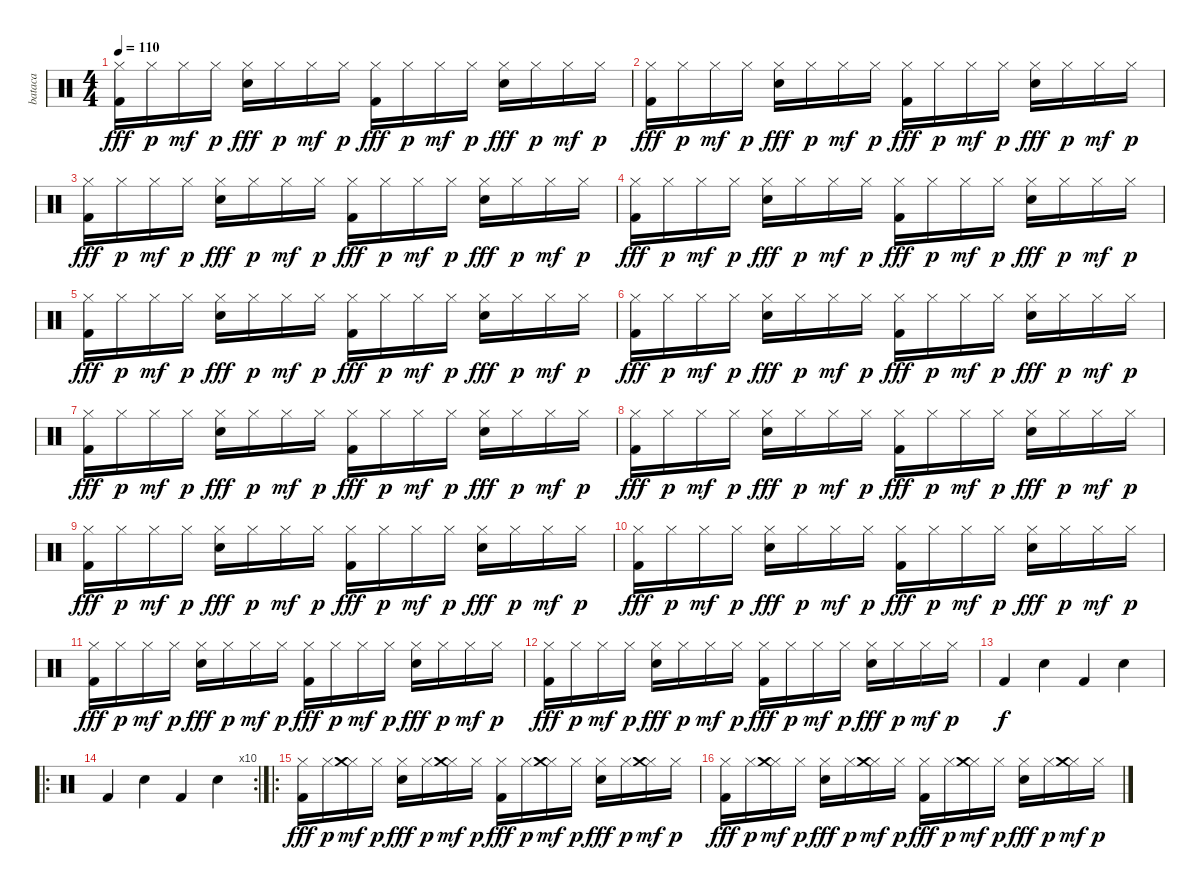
\track ("bataca" "bataca") {instrument percussion}
\staff {score}
\articulation defaults
\ts (4 4)
\tempo 110
\clef neutral
\ks c
("Hi-Hat (closed)" "Kick (hit) 2").16{dy fff} "Hi-Hat (closed)".16{dy p} "Hi-Hat (closed)".16{dy mf} "Hi-Hat (closed)".16{dy p} ("Hi-Hat (closed)" "Electric Snare (hit)").16{dy fff} "Hi-Hat (closed)".16{dy p} "Hi-Hat (closed)".16{dy mf} "Hi-Hat (closed)".16{dy p} ("Hi-Hat (closed)" "Kick (hit) 2").16{dy fff} "Hi-Hat (closed)".16{dy p} "Hi-Hat (closed)".16{dy mf} "Hi-Hat (closed)".16{dy p} ("Hi-Hat (closed)" "Electric Snare (hit)").16{dy fff} "Hi-Hat (closed)".16{dy p} "Hi-Hat (closed)".16{dy mf} "Hi-Hat (closed)".16{dy p} |
("Hi-Hat (closed)" "Kick (hit) 2").16{dy fff} "Hi-Hat (closed)".16{dy p} "Hi-Hat (closed)".16{dy mf} "Hi-Hat (closed)".16{dy p} ("Hi-Hat (closed)" "Electric Snare (hit)").16{dy fff} "Hi-Hat (closed)".16{dy p} "Hi-Hat (closed)".16{dy mf} "Hi-Hat (closed)".16{dy p} ("Hi-Hat (closed)" "Kick (hit) 2").16{dy fff} "Hi-Hat (closed)".16{dy p} "Hi-Hat (closed)".16{dy mf} "Hi-Hat (closed)".16{dy p} ("Hi-Hat (closed)" "Electric Snare (hit)").16{dy fff} "Hi-Hat (closed)".16{dy p} "Hi-Hat (closed)".16{dy mf} "Hi-Hat (closed)".16{dy p} |
("Hi-Hat (closed)" "Kick (hit) 2").16{dy fff} "Hi-Hat (closed)".16{dy p} "Hi-Hat (closed)".16{dy mf} "Hi-Hat (closed)".16{dy p} ("Hi-Hat (closed)" "Electric Snare (hit)").16{dy fff} "Hi-Hat (closed)".16{dy p} "Hi-Hat (closed)".16{dy mf} "Hi-Hat (closed)".16{dy p} ("Hi-Hat (closed)" "Kick (hit) 2").16{dy fff} "Hi-Hat (closed)".16{dy p} "Hi-Hat (closed)".16{dy mf} "Hi-Hat (closed)".16{dy p} ("Hi-Hat (closed)" "Electric Snare (hit)").16{dy fff} "Hi-Hat (closed)".16{dy p} "Hi-Hat (closed)".16{dy mf} "Hi-Hat (closed)".16{dy p} |
("Hi-Hat (closed)" "Kick (hit) 2").16{dy fff} "Hi-Hat (closed)".16{dy p} "Hi-Hat (closed)".16{dy mf} "Hi-Hat (closed)".16{dy p} ("Hi-Hat (closed)" "Electric Snare (hit)").16{dy fff} "Hi-Hat (closed)".16{dy p} "Hi-Hat (closed)".16{dy mf} "Hi-Hat (closed)".16{dy p} ("Hi-Hat (closed)" "Kick (hit) 2").16{dy fff} "Hi-Hat (closed)".16{dy p} "Hi-Hat (closed)".16{dy mf} "Hi-Hat (closed)".16{dy p} ("Hi-Hat (closed)" "Electric Snare (hit)").16{dy fff} "Hi-Hat (closed)".16{dy p} "Hi-Hat (closed)".16{dy mf} "Hi-Hat (closed)".16{dy p} |
("Hi-Hat (closed)" "Kick (hit) 2").16{dy fff} "Hi-Hat (closed)".16{dy p} "Hi-Hat (closed)".16{dy mf} "Hi-Hat (closed)".16{dy p} ("Hi-Hat (closed)" "Electric Snare (hit)").16{dy fff} "Hi-Hat (closed)".16{dy p} "Hi-Hat (closed)".16{dy mf} "Hi-Hat (closed)".16{dy p} ("Hi-Hat (closed)" "Kick (hit) 2").16{dy fff} "Hi-Hat (closed)".16{dy p} "Hi-Hat (closed)".16{dy mf} "Hi-Hat (closed)".16{dy p} ("Hi-Hat (closed)" "Electric Snare (hit)").16{dy fff} "Hi-Hat (closed)".16{dy p} "Hi-Hat (closed)".16{dy mf} "Hi-Hat (closed)".16{dy p} |
("Hi-Hat (closed)" "Kick (hit) 2").16{dy fff} "Hi-Hat (closed)".16{dy p} "Hi-Hat (closed)".16{dy mf} "Hi-Hat (closed)".16{dy p} ("Hi-Hat (closed)" "Electric Snare (hit)").16{dy fff} "Hi-Hat (closed)".16{dy p} "Hi-Hat (closed)".16{dy mf} "Hi-Hat (closed)".16{dy p} ("Hi-Hat (closed)" "Kick (hit) 2").16{dy fff} "Hi-Hat (closed)".16{dy p} "Hi-Hat (closed)".16{dy mf} "Hi-Hat (closed)".16{dy p} ("Hi-Hat (closed)" "Electric Snare (hit)").16{dy fff} "Hi-Hat (closed)".16{dy p} "Hi-Hat (closed)".16{dy mf} "Hi-Hat (closed)".16{dy p} |
("Hi-Hat (closed)" "Kick (hit) 2").16{dy fff} "Hi-Hat (closed)".16{dy p} "Hi-Hat (closed)".16{dy mf} "Hi-Hat (closed)".16{dy p} ("Hi-Hat (closed)" "Electric Snare (hit)").16{dy fff} "Hi-Hat (closed)".16{dy p} "Hi-Hat (closed)".16{dy mf} "Hi-Hat (closed)".16{dy p} ("Hi-Hat (closed)" "Kick (hit) 2").16{dy fff} "Hi-Hat (closed)".16{dy p} "Hi-Hat (closed)".16{dy mf} "Hi-Hat (closed)".16{dy p} ("Hi-Hat (closed)" "Electric Snare (hit)").16{dy fff} "Hi-Hat (closed)".16{dy p} "Hi-Hat (closed)".16{dy mf} "Hi-Hat (closed)".16{dy p} |
("Hi-Hat (closed)" "Kick (hit) 2").16{dy fff} "Hi-Hat (closed)".16{dy p} "Hi-Hat (closed)".16{dy mf} "Hi-Hat (closed)".16{dy p} ("Hi-Hat (closed)" "Electric Snare (hit)").16{dy fff} "Hi-Hat (closed)".16{dy p} "Hi-Hat (closed)".16{dy mf} "Hi-Hat (closed)".16{dy p} ("Hi-Hat (closed)" "Kick (hit) 2").16{dy fff} "Hi-Hat (closed)".16{dy p} "Hi-Hat (closed)".16{dy mf} "Hi-Hat (closed)".16{dy p} ("Hi-Hat (closed)" "Electric Snare (hit)").16{dy fff} "Hi-Hat (closed)".16{dy p} "Hi-Hat (closed)".16{dy mf} "Hi-Hat (closed)".16{dy p} |
("Hi-Hat (closed)" "Kick (hit) 2").16{dy fff} "Hi-Hat (closed)".16{dy p} "Hi-Hat (closed)".16{dy mf} "Hi-Hat (closed)".16{dy p} ("Hi-Hat (closed)" "Electric Snare (hit)").16{dy fff} "Hi-Hat (closed)".16{dy p} "Hi-Hat (closed)".16{dy mf} "Hi-Hat (closed)".16{dy p} ("Hi-Hat (closed)" "Kick (hit) 2").16{dy fff} "Hi-Hat (closed)".16{dy p} "Hi-Hat (closed)".16{dy mf} "Hi-Hat (closed)".16{dy p} ("Hi-Hat (closed)" "Electric Snare (hit)").16{dy fff} "Hi-Hat (closed)".16{dy p} "Hi-Hat (closed)".16{dy mf} "Hi-Hat (closed)".16{dy p} |
("Hi-Hat (closed)" "Kick (hit) 2").16{dy fff} "Hi-Hat (closed)".16{dy p} "Hi-Hat (closed)".16{dy mf} "Hi-Hat (closed)".16{dy p} ("Hi-Hat (closed)" "Electric Snare (hit)").16{dy fff} "Hi-Hat (closed)".16{dy p} "Hi-Hat (closed)".16{dy mf} "Hi-Hat (closed)".16{dy p} ("Hi-Hat (closed)" "Kick (hit) 2").16{dy fff} "Hi-Hat (closed)".16{dy p} "Hi-Hat (closed)".16{dy mf} "Hi-Hat (closed)".16{dy p} ("Hi-Hat (closed)" "Electric Snare (hit)").16{dy fff} "Hi-Hat (closed)".16{dy p} "Hi-Hat (closed)".16{dy mf} "Hi-Hat (closed)".16{dy p} |
("Hi-Hat (closed)" "Kick (hit) 2").16{dy fff} "Hi-Hat (closed)".16{dy p} "Hi-Hat (closed)".16{dy mf} "Hi-Hat (closed)".16{dy p} ("Hi-Hat (closed)" "Electric Snare (hit)").16{dy fff} "Hi-Hat (closed)".16{dy p} "Hi-Hat (closed)".16{dy mf} "Hi-Hat (closed)".16{dy p} ("Hi-Hat (closed)" "Kick (hit) 2").16{dy fff} "Hi-Hat (closed)".16{dy p} "Hi-Hat (closed)".16{dy mf} "Hi-Hat (closed)".16{dy p} ("Hi-Hat (closed)" "Electric Snare (hit)").16{dy fff} "Hi-Hat (closed)".16{dy p} "Hi-Hat (closed)".16{dy mf} "Hi-Hat (closed)".16{dy p} |
("Hi-Hat (closed)" "Kick (hit) 2").16{dy fff} "Hi-Hat (closed)".16{dy p} "Hi-Hat (closed)".16{dy mf} "Hi-Hat (closed)".16{dy p} ("Hi-Hat (closed)" "Electric Snare (hit)").16{dy fff} "Hi-Hat (closed)".16{dy p} "Hi-Hat (closed)".16{dy mf} "Hi-Hat (closed)".16{dy p} ("Hi-Hat (closed)" "Kick (hit) 2").16{dy fff} "Hi-Hat (closed)".16{dy p} "Hi-Hat (closed)".16{dy mf} "Hi-Hat (closed)".16{dy p} ("Hi-Hat (closed)" "Electric Snare (hit)").16{dy fff} "Hi-Hat (closed)".16{dy p} "Hi-Hat (closed)".16{dy mf} "Hi-Hat (closed)".16{dy p} |
"Kick (hit) 2".4{dy f} "Electric Snare (hit)".4 "Kick (hit) 2".4 "Electric Snare (hit)".4 |
\ro
\rc 10 "Kick (hit) 2".4 "Electric Snare (hit)".4 "Kick (hit) 2".4 "Electric Snare (hit)".4
|
\ro
("Hi-Hat (closed)" "Kick (hit) 2").16{dy fff} "Hi-Hat (closed)".16{dy p} ("Hi-Hat (closed)" "Crash medium (hit)").16{dy mf} "Hi-Hat (closed)".16{dy p} ("Hi-Hat (closed)" "Electric Snare (hit)").16{dy fff} "Hi-Hat (closed)".16{dy p} ("Hi-Hat (closed)" "Crash medium (hit)").16{dy mf} "Hi-Hat (closed)".16{dy p} ("Hi-Hat (closed)" "Kick (hit) 2").16{dy fff} "Hi-Hat (closed)".16{dy p} ("Hi-Hat (closed)" "Crash medium (hit)").16{dy mf} "Hi-Hat (closed)".16{dy p} ("Hi-Hat (closed)" "Electric Snare (hit)").16{dy fff} "Hi-Hat (closed)".16{dy p} ("Hi-Hat (closed)" "Crash medium (hit)").16{dy mf} "Hi-Hat (closed)".16{dy p} |
("Hi-Hat (closed)" "Kick (hit) 2").16{dy fff} "Hi-Hat (closed)".16{dy p} ("Hi-Hat (closed)" "Crash medium (hit)").16{dy mf} "Hi-Hat (closed)".16{dy p} ("Hi-Hat (closed)" "Electric Snare (hit)").16{dy fff} "Hi-Hat (closed)".16{dy p} ("Hi-Hat (closed)" "Crash medium (hit)").16{dy mf} "Hi-Hat (closed)".16{dy p} ("Hi-Hat (closed)" "Kick (hit) 2").16{dy fff} "Hi-Hat (closed)".16{dy p} ("Hi-Hat (closed)" "Crash medium (hit)").16{dy mf} "Hi-Hat (closed)".16{dy p} ("Hi-Hat (closed)" "Electric Snare (hit)").16{dy fff} "Hi-Hat (closed)".16{dy p} ("Hi-Hat (closed)" "Crash medium (hit)").16{dy mf} "Hi-Hat (closed)".16{dy p}
